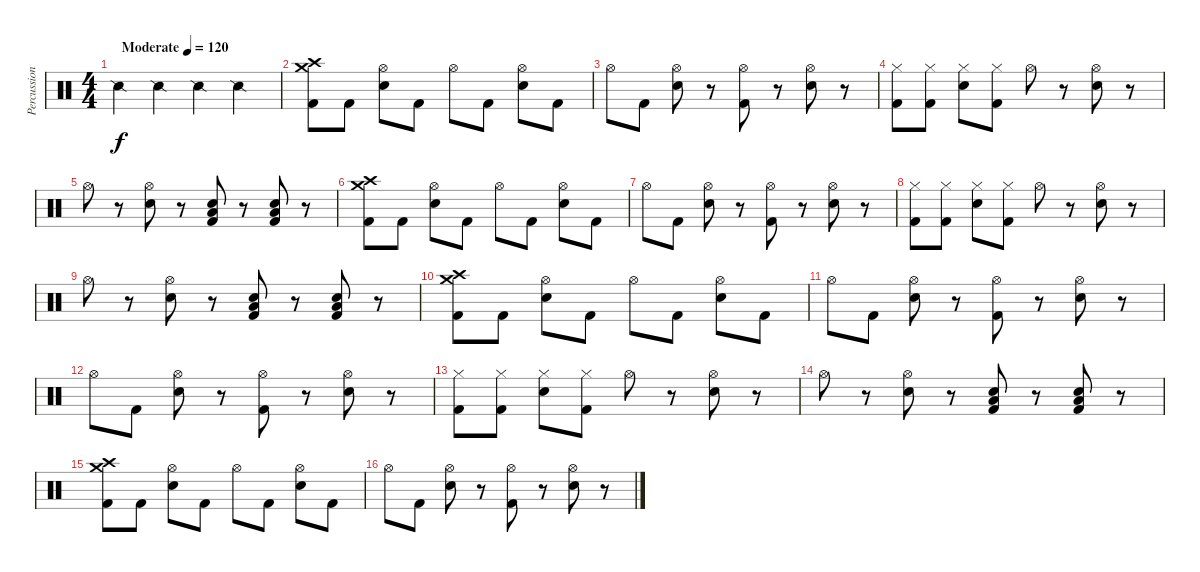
\track ("Percussion" "Percussion") {instrument percussion}
\staff {score}
\articulation defaults
\ts (4 4)
\tempo (120 "Moderate")
\clef neutral
\ks c "Snare (side stick) 2".4{dy f} "Snare (side stick) 2".4 "Snare (side stick) 2".4 "Snare (side stick) 2".4
|
("Crash medium (hit)" "Crash high (hit)" "Kick (hit) 2").8 "Kick (hit) 2".8 ("Hi-Hat (open)" "Electric Snare (hit)").8 "Kick (hit) 2".8 "Hi-Hat (open)".8 "Kick (hit) 2".8 ("Hi-Hat (open)" "Electric Snare (hit)").8 "Kick (hit) 2".8 |
"Hi-Hat (open)".8 "Kick (hit) 2".8 ("Hi-Hat (open)" "Electric Snare (hit)").8 r.8 ("Hi-Hat (open)" "Kick (hit) 2").8 r.8 ("Hi-Hat (open)" "Electric Snare (hit)").8 r.8 |
("Hi-Hat (closed)" "Kick (hit) 2").8 ("Hi-Hat (closed)" "Kick (hit) 2").8 ("Hi-Hat (closed)" "Electric Snare (hit)").8 ("Hi-Hat (closed)" "Kick (hit) 2").8 "Hi-Hat (open)".8 r.8 ("Hi-Hat (open)" "Electric Snare (hit)").8 r.8 |
"Hi-Hat (open)".8 r.8 ("Hi-Hat (open)" "Electric Snare (hit)").8 r.8 ("Electric Snare (hit)" "Low Floor Tom (hit)" "Kick (hit) 2").8 r.8 ("Electric Snare (hit)" "Low Floor Tom (hit)" "Kick (hit) 2").8 r.8 |
("Crash medium (hit)" "Crash high (hit)" "Kick (hit) 2").8 "Kick (hit) 2".8 ("Hi-Hat (open)" "Electric Snare (hit)").8 "Kick (hit) 2".8 "Hi-Hat (open)".8 "Kick (hit) 2".8 ("Hi-Hat (open)" "Electric Snare (hit)").8 "Kick (hit) 2".8 |
"Hi-Hat (open)".8 "Kick (hit) 2".8 ("Hi-Hat (open)" "Electric Snare (hit)").8 r.8 ("Hi-Hat (open)" "Kick (hit) 2").8 r.8 ("Hi-Hat (open)" "Electric Snare (hit)").8 r.8 |
("Hi-Hat (closed)" "Kick (hit) 2").8 ("Hi-Hat (closed)" "Kick (hit) 2").8 ("Hi-Hat (closed)" "Electric Snare (hit)").8 ("Hi-Hat (closed)" "Kick (hit) 2").8 "Hi-Hat (open)".8 r.8 ("Hi-Hat (open)" "Electric Snare (hit)").8 r.8 |
"Hi-Hat (open)".8 r.8 ("Hi-Hat (open)" "Electric Snare (hit)").8 r.8 ("Electric Snare (hit)" "Low Floor Tom (hit)" "Kick (hit) 2").8 r.8 ("Electric Snare (hit)" "Low Floor Tom (hit)" "Kick (hit) 2").8 r.8 |
("Crash medium (hit)" "Crash high (hit)" "Kick (hit) 2").8 "Kick (hit) 2".8 ("Hi-Hat (open)" "Electric Snare (hit)").8 "Kick (hit) 2".8 "Hi-Hat (open)".8 "Kick (hit) 2".8 ("Hi-Hat (open)" "Electric Snare (hit)").8 "Kick (hit) 2".8 |
"Hi-Hat (open)".8 "Kick (hit) 2".8 ("Hi-Hat (open)" "Electric Snare (hit)").8 r.8 ("Hi-Hat (open)" "Kick (hit) 2").8 r.8 ("Hi-Hat (open)" "Electric Snare (hit)").8 r.8 |
"Hi-Hat (open)".8 "Kick (hit) 2".8 ("Hi-Hat (open)" "Electric Snare (hit)").8 r.8 ("Hi-Hat (open)" "Kick (hit) 2").8 r.8 ("Hi-Hat (open)" "Electric Snare (hit)").8 r.8 |
("Hi-Hat (closed)" "Kick (hit) 2").8 ("Hi-Hat (closed)" "Kick (hit) 2").8 ("Hi-Hat (closed)" "Electric Snare (hit)").8 ("Hi-Hat (closed)" "Kick (hit) 2").8 "Hi-Hat (open)".8 r.8 ("Hi-Hat (open)" "Electric Snare (hit)").8 r.8 |
"Hi-Hat (open)".8 r.8 ("Hi-Hat (open)" "Electric Snare (hit)").8 r.8 ("Electric Snare (hit)" "Low Floor Tom (hit)" "Kick (hit) 2").8 r.8 ("Electric Snare (hit)" "Low Floor Tom (hit)" "Kick (hit) 2").8 r.8 |
("Crash medium (hit)" "Crash high (hit)" "Kick (hit) 2").8 "Kick (hit) 2".8 ("Hi-Hat (open)" "Electric Snare (hit)").8 "Kick (hit) 2".8 "Hi-Hat (open)".8 "Kick (hit) 2".8 ("Hi-Hat (open)" "Electric Snare (hit)").8 "Kick (hit) 2".8 |
"Hi-Hat (open)".8 "Kick (hit) 2".8 ("Hi-Hat (open)" "Electric Snare (hit)").8 r.8 ("Hi-Hat (open)" "Kick (hit) 2").8 r.8 ("Hi-Hat (open)" "Electric Snare (hit)").8 r.8
